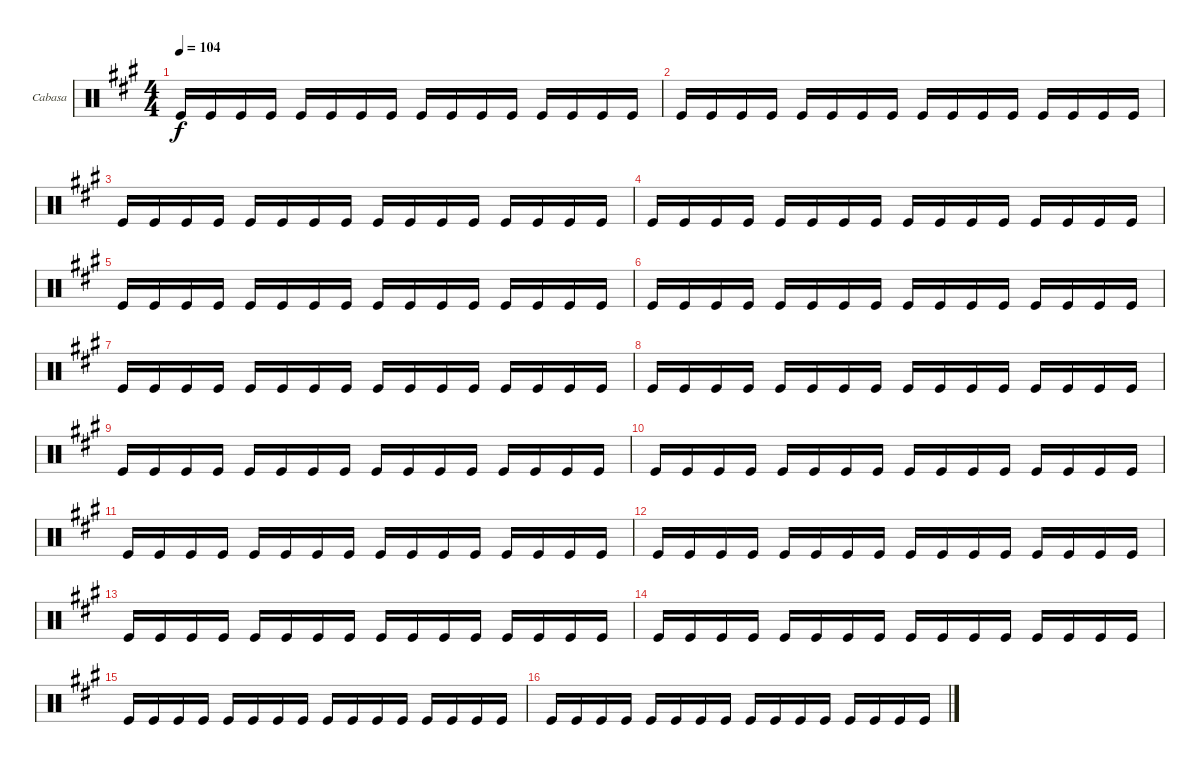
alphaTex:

\bracketExtendMode groupsimilarinstruments
\firstSystemTrackNameOrientation horizontal
\otherSystemsTrackNameOrientation horizontal
\track ("Cabasa" "Cabasa") {instrument percussion}
\staff {score}
\articulation defaults
\ts (4 4)
\tempo 104
\clef neutral
\ks a "Kick (hit)".16{dy f} "Kick (hit)".16 "Kick (hit)".16 "Kick (hit)".16 "Kick (hit)".16 "Kick (hit)".16 "Kick (hit)".16 "Kick (hit)".16 "Kick (hit)".16 "Kick (hit)".16 "Kick (hit)".16 "Kick (hit)".16 "Kick (hit)".16 "Kick (hit)".16 "Kick (hit)".16 "Kick (hit)".16
|
"Kick (hit)".16 "Kick (hit)".16 "Kick (hit)".16 "Kick (hit)".16 "Kick (hit)".16 "Kick (hit)".16 "Kick (hit)".16 "Kick (hit)".16 "Kick (hit)".16 "Kick (hit)".16 "Kick (hit)".16 "Kick (hit)".16 "Kick (hit)".16 "Kick (hit)".16 "Kick (hit)".16 "Kick (hit)".16 |
"Kick (hit)".16 "Kick (hit)".16 "Kick (hit)".16 "Kick (hit)".16 "Kick (hit)".16 "Kick (hit)".16 "Kick (hit)".16 "Kick (hit)".16 "Kick (hit)".16 "Kick (hit)".16 "Kick (hit)".16 "Kick (hit)".16 "Kick (hit)".16 "Kick (hit)".16 "Kick (hit)".16 "Kick (hit)".16 |
"Kick (hit)".16 "Kick (hit)".16 "Kick (hit)".16 "Kick (hit)".16 "Kick (hit)".16 "Kick (hit)".16 "Kick (hit)".16 "Kick (hit)".16 "Kick (hit)".16 "Kick (hit)".16 "Kick (hit)".16 "Kick (hit)".16 "Kick (hit)".16 "Kick (hit)".16 "Kick (hit)".16 "Kick (hit)".16 |
"Kick (hit)".16 "Kick (hit)".16 "Kick (hit)".16 "Kick (hit)".16 "Kick (hit)".16 "Kick (hit)".16 "Kick (hit)".16 "Kick (hit)".16 "Kick (hit)".16 "Kick (hit)".16 "Kick (hit)".16 "Kick (hit)".16 "Kick (hit)".16 "Kick (hit)".16 "Kick (hit)".16 "Kick (hit)".16 |
"Kick (hit)".16 "Kick (hit)".16 "Kick (hit)".16 "Kick (hit)".16 "Kick (hit)".16 "Kick (hit)".16 "Kick (hit)".16 "Kick (hit)".16 "Kick (hit)".16 "Kick (hit)".16 "Kick (hit)".16 "Kick (hit)".16 "Kick (hit)".16 "Kick (hit)".16 "Kick (hit)".16 "Kick (hit)".16 |
"Kick (hit)".16 "Kick (hit)".16 "Kick (hit)".16 "Kick (hit)".16 "Kick (hit)".16 "Kick (hit)".16 "Kick (hit)".16 "Kick (hit)".16 "Kick (hit)".16 "Kick (hit)".16 "Kick (hit)".16 "Kick (hit)".16 "Kick (hit)".16 "Kick (hit)".16 "Kick (hit)".16 "Kick (hit)".16 |
"Kick (hit)".16 "Kick (hit)".16 "Kick (hit)".16 "Kick (hit)".16 "Kick (hit)".16 "Kick (hit)".16 "Kick (hit)".16 "Kick (hit)".16 "Kick (hit)".16 "Kick (hit)".16 "Kick (hit)".16 "Kick (hit)".16 "Kick (hit)".16 "Kick (hit)".16 "Kick (hit)".16 "Kick (hit)".16 |
"Kick (hit)".16 "Kick (hit)".16 "Kick (hit)".16 "Kick (hit)".16 "Kick (hit)".16 "Kick (hit)".16 "Kick (hit)".16 "Kick (hit)".16 "Kick (hit)".16 "Kick (hit)".16 "Kick (hit)".16 "Kick (hit)".16 "Kick (hit)".16 "Kick (hit)".16 "Kick (hit)".16 "Kick (hit)".16 |
"Kick (hit)".16 "Kick (hit)".16 "Kick (hit)".16 "Kick (hit)".16 "Kick (hit)".16 "Kick (hit)".16 "Kick (hit)".16 "Kick (hit)".16 "Kick (hit)".16 "Kick (hit)".16 "Kick (hit)".16 "Kick (hit)".16 "Kick (hit)".16 "Kick (hit)".16 "Kick (hit)".16 "Kick (hit)".16 |
"Kick (hit)".16 "Kick (hit)".16 "Kick (hit)".16 "Kick (hit)".16 "Kick (hit)".16 "Kick (hit)".16 "Kick (hit)".16 "Kick (hit)".16 "Kick (hit)".16 "Kick (hit)".16 "Kick (hit)".16 "Kick (hit)".16 "Kick (hit)".16 "Kick (hit)".16 "Kick (hit)".16 "Kick (hit)".16 |
"Kick (hit)".16 "Kick (hit)".16 "Kick (hit)".16 "Kick (hit)".16 "Kick (hit)".16 "Kick (hit)".16 "Kick (hit)".16 "Kick (hit)".16 "Kick (hit)".16 "Kick (hit)".16 "Kick (hit)".16 "Kick (hit)".16 "Kick (hit)".16 "Kick (hit)".16 "Kick (hit)".16 "Kick (hit)".16 |
"Kick (hit)".16 "Kick (hit)".16 "Kick (hit)".16 "Kick (hit)".16 "Kick (hit)".16 "Kick (hit)".16 "Kick (hit)".16 "Kick (hit)".16 "Kick (hit)".16 "Kick (hit)".16 "Kick (hit)".16 "Kick (hit)".16 "Kick (hit)".16 "Kick (hit)".16 "Kick (hit)".16 "Kick (hit)".16 |
"Kick (hit)".16 "Kick (hit)".16 "Kick (hit)".16 "Kick (hit)".16 "Kick (hit)".16 "Kick (hit)".16 "Kick (hit)".16 "Kick (hit)".16 "Kick (hit)".16 "Kick (hit)".16 "Kick (hit)".16 "Kick (hit)".16 "Kick (hit)".16 "Kick (hit)".16 "Kick (hit)".16 "Kick (hit)".16 |
"Kick (hit)".16 "Kick (hit)".16 "Kick (hit)".16 "Kick (hit)".16 "Kick (hit)".16 "Kick (hit)".16 "Kick (hit)".16 "Kick (hit)".16 "Kick (hit)".16 "Kick (hit)".16 "Kick (hit)".16 "Kick (hit)".16 "Kick (hit)".16 "Kick (hit)".16 "Kick (hit)".16 "Kick (hit)".16 |
"Kick (hit)".16 "Kick (hit)".16 "Kick (hit)".16 "Kick (hit)".16 "Kick (hit)".16 "Kick (hit)".16 "Kick (hit)".16 "Kick (hit)".16 "Kick (hit)".16 "Kick (hit)".16 "Kick (hit)".16 "Kick (hit)".16 "Kick (hit)".16 "Kick (hit)".16 "Kick (hit)".16 "Kick (hit)".16
